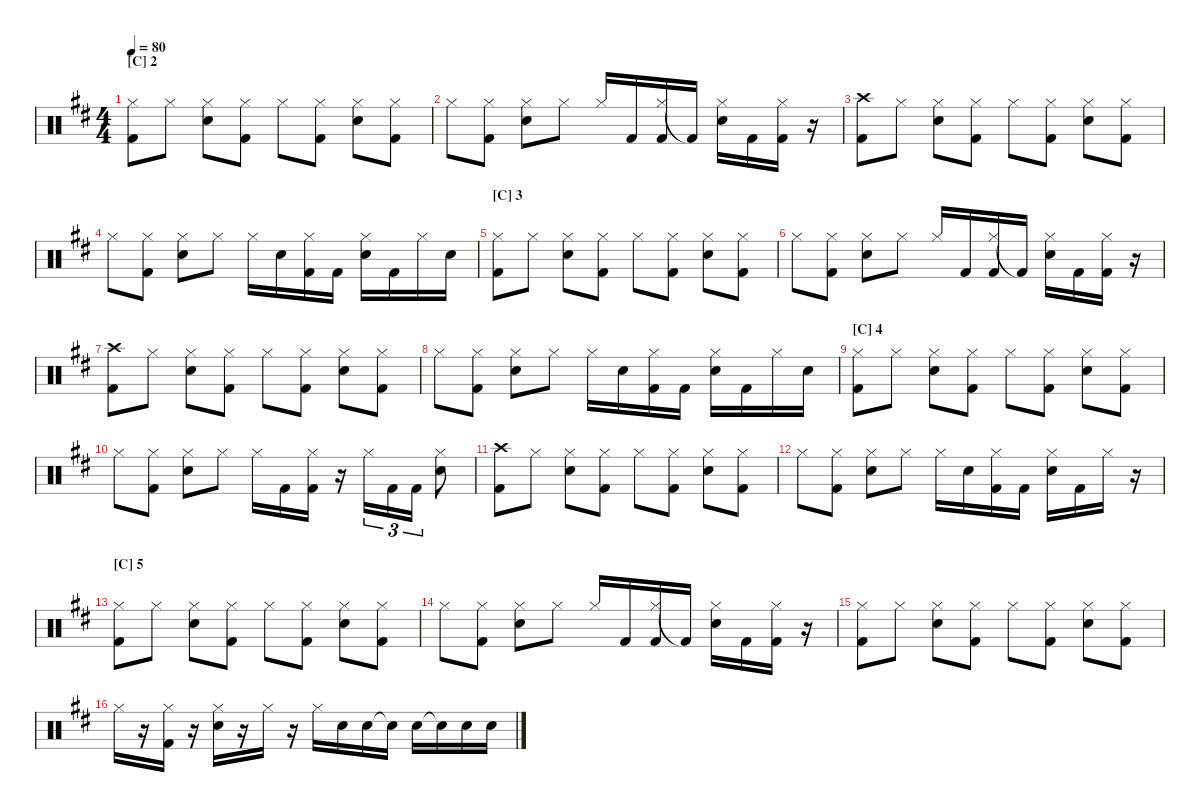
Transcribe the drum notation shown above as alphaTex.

\hideDynamics
\bracketExtendMode nobrackets
\singleTrackTrackNamePolicy hidden
\multiTrackTrackNamePolicy hidden
\otherSystemsTrackNameOrientation horizontal
\track ("Drumkit" "Drums") {instrument percussion}
\staff {score}
\articulation defaults
\ts (4 4)
\section ("C" "2")
\tempo 80
\clef neutral
\ks d
("Hi-Hat (closed)"{acc forcenatural} "Kick (hit) 2"{acc forcenatural}).8{dy f beam Down} "Hi-Hat (closed)"{acc forcenatural}.8{beam Down} ("Hi-Hat (closed)"{acc forcenatural} "Snare (hit) 2"{acc forcenatural}).8{beam Down} ("Hi-Hat (closed)"{acc forcenatural} "Kick (hit) 2"{acc forcenatural}).8{beam Down} "Hi-Hat (closed)"{acc forcenatural}.8{beam Down} ("Hi-Hat (closed)"{acc forcenatural} "Kick (hit) 2"{acc forcenatural}).8{beam Down} ("Hi-Hat (closed)"{acc forcenatural} "Snare (hit) 2"{acc forcenatural}).8{beam Down} ("Hi-Hat (closed)"{acc forcenatural} "Kick (hit) 2"{acc forcenatural}).8{beam Down} |
"Hi-Hat (closed)"{acc forcenatural}.8{beam Down} ("Hi-Hat (closed)"{acc forcenatural} "Kick (hit) 2"{acc forcenatural}).8{beam Down} ("Hi-Hat (closed)"{acc forcenatural} "Snare (hit) 2"{acc forcenatural}).8{beam Down} "Hi-Hat (closed)"{acc forcenatural}.8{beam Down} "Hi-Hat (closed)"{acc forcenatural}.16{beam Up} "Kick (hit) 2"{acc forcenatural}.16{beam Up} ("Hi-Hat (closed)"{acc forcenatural} "Kick (hit) 2"{acc forcenatural}).16{beam Up} "Kick (hit) 2"{t acc forcenatural}.16{beam Up} ("Hi-Hat (closed)"{acc forcenatural} "Snare (hit) 2"{acc forcenatural}).16{beam Down} "Kick (hit) 2"{acc forcenatural}.16{beam Down} ("Hi-Hat (closed)"{acc forcenatural} "Kick (hit) 2"{acc forcenatural}).16{beam Down} r.16{beam Down} |
("Crash high (hit)"{acc forcenatural} "Kick (hit) 2"{acc forcenatural}).8{beam Down} "Hi-Hat (closed)"{acc forcenatural}.8{beam Down} ("Hi-Hat (closed)"{acc forcenatural} "Snare (hit) 2"{acc forcenatural}).8{beam Down} ("Hi-Hat (closed)"{acc forcenatural} "Kick (hit) 2"{acc forcenatural}).8{beam Down} "Hi-Hat (closed)"{acc forcenatural}.8{beam Down} ("Hi-Hat (closed)"{acc forcenatural} "Kick (hit) 2"{acc forcenatural}).8{beam Down} ("Hi-Hat (closed)"{acc forcenatural} "Snare (hit) 2"{acc forcenatural}).8{beam Down} ("Hi-Hat (closed)"{acc forcenatural} "Kick (hit) 2"{acc forcenatural}).8{beam Down} |
"Hi-Hat (closed)"{acc forcenatural}.8{beam Down} ("Hi-Hat (closed)"{acc forcenatural} "Kick (hit) 2"{acc forcenatural}).8{beam Down} ("Hi-Hat (closed)"{acc forcenatural} "Snare (hit) 2"{acc forcenatural}).8{beam Down} "Hi-Hat (closed)"{acc forcenatural}.8{beam Down} "Hi-Hat (closed)"{acc forcenatural}.16{beam Down} "Snare (hit) 2"{acc forcenatural}.16{beam Down} ("Hi-Hat (closed)"{acc forcenatural} "Kick (hit) 2"{acc forcenatural}).16{beam Down} "Kick (hit) 2"{acc forcenatural}.16{beam Down} ("Hi-Hat (closed)"{acc forcenatural} "Snare (hit) 2"{acc forcenatural}).16{beam Down} "Kick (hit) 2"{acc forcenatural}.16{beam Down} "Hi-Hat (closed)"{acc forcenatural}.16{beam Down} "Snare (hit) 2"{acc forcenatural}.16{beam Down} |
\section ("C" "3")
("Hi-Hat (closed)"{acc forcenatural} "Kick (hit) 2"{acc forcenatural}).8{beam Down} "Hi-Hat (closed)"{acc forcenatural}.8{beam Down} ("Hi-Hat (closed)"{acc forcenatural} "Snare (hit) 2"{acc forcenatural}).8{beam Down} ("Hi-Hat (closed)"{acc forcenatural} "Kick (hit) 2"{acc forcenatural}).8{beam Down} "Hi-Hat (closed)"{acc forcenatural}.8{beam Down} ("Hi-Hat (closed)"{acc forcenatural} "Kick (hit) 2"{acc forcenatural}).8{beam Down} ("Hi-Hat (closed)"{acc forcenatural} "Snare (hit) 2"{acc forcenatural}).8{beam Down} ("Hi-Hat (closed)"{acc forcenatural} "Kick (hit) 2"{acc forcenatural}).8{beam Down} |
"Hi-Hat (closed)"{acc forcenatural}.8{beam Down} ("Hi-Hat (closed)"{acc forcenatural} "Kick (hit) 2"{acc forcenatural}).8{beam Down} ("Hi-Hat (closed)"{acc forcenatural} "Snare (hit) 2"{acc forcenatural}).8{beam Down} "Hi-Hat (closed)"{acc forcenatural}.8{beam Down} "Hi-Hat (closed)"{acc forcenatural}.16{beam Up} "Kick (hit) 2"{acc forcenatural}.16{beam Up} ("Hi-Hat (closed)"{acc forcenatural} "Kick (hit) 2"{acc forcenatural}).16{beam Up} "Kick (hit) 2"{t acc forcenatural}.16{beam Up} ("Hi-Hat (closed)"{acc forcenatural} "Snare (hit) 2"{acc forcenatural}).16{beam Down} "Kick (hit) 2"{acc forcenatural}.16{beam Down} ("Hi-Hat (closed)"{acc forcenatural} "Kick (hit) 2"{acc forcenatural}).16{beam Down} r.16{beam Down} |
("Crash high (hit)"{acc forcenatural} "Kick (hit) 2"{acc forcenatural}).8{beam Down} "Hi-Hat (closed)"{acc forcenatural}.8{beam Down} ("Hi-Hat (closed)"{acc forcenatural} "Snare (hit) 2"{acc forcenatural}).8{beam Down} ("Hi-Hat (closed)"{acc forcenatural} "Kick (hit) 2"{acc forcenatural}).8{beam Down} "Hi-Hat (closed)"{acc forcenatural}.8{beam Down} ("Hi-Hat (closed)"{acc forcenatural} "Kick (hit) 2"{acc forcenatural}).8{beam Down} ("Hi-Hat (closed)"{acc forcenatural} "Snare (hit) 2"{acc forcenatural}).8{beam Down} ("Hi-Hat (closed)"{acc forcenatural} "Kick (hit) 2"{acc forcenatural}).8{beam Down} |
"Hi-Hat (closed)"{acc forcenatural}.8{beam Down} ("Hi-Hat (closed)"{acc forcenatural} "Kick (hit) 2"{acc forcenatural}).8{beam Down} ("Hi-Hat (closed)"{acc forcenatural} "Snare (hit) 2"{acc forcenatural}).8{beam Down} "Hi-Hat (closed)"{acc forcenatural}.8{beam Down} "Hi-Hat (closed)"{acc forcenatural}.16{beam Down} "Snare (hit) 2"{acc forcenatural}.16{beam Down} ("Hi-Hat (closed)"{acc forcenatural} "Kick (hit) 2"{acc forcenatural}).16{beam Down} "Kick (hit) 2"{acc forcenatural}.16{beam Down} ("Hi-Hat (closed)"{acc forcenatural} "Snare (hit) 2"{acc forcenatural}).16{beam Down} "Kick (hit) 2"{acc forcenatural}.16{beam Down} "Hi-Hat (closed)"{acc forcenatural}.16{beam Down} "Snare (hit) 2"{acc forcenatural}.16{beam Down} |
\section ("C" "4")
("Hi-Hat (closed)"{acc forcenatural} "Kick (hit) 2"{acc forcenatural}).8{beam Down} "Hi-Hat (closed)"{acc forcenatural}.8{beam Down} ("Hi-Hat (closed)"{acc forcenatural} "Snare (hit) 2"{acc forcenatural}).8{beam Down} ("Hi-Hat (closed)"{acc forcenatural} "Kick (hit) 2"{acc forcenatural}).8{beam Down} "Hi-Hat (closed)"{acc forcenatural}.8{beam Down} ("Hi-Hat (closed)"{acc forcenatural} "Kick (hit) 2"{acc forcenatural}).8{beam Down} ("Hi-Hat (closed)"{acc forcenatural} "Snare (hit) 2"{acc forcenatural}).8{beam Down} ("Hi-Hat (closed)"{acc forcenatural} "Kick (hit) 2"{acc forcenatural}).8{beam Down} |
"Hi-Hat (closed)"{acc forcenatural}.8{beam Down} ("Hi-Hat (closed)"{acc forcenatural} "Kick (hit) 2"{acc forcenatural}).8{beam Down} ("Hi-Hat (closed)"{acc forcenatural} "Snare (hit) 2"{acc forcenatural}).8{beam Down} "Hi-Hat (closed)"{acc forcenatural}.8{beam Down} "Hi-Hat (closed)"{acc forcenatural}.16{beam Down} "Kick (hit) 2"{acc forcenatural}.16{beam Down} ("Hi-Hat (closed)"{acc forcenatural} "Kick (hit) 2"{acc forcenatural}).16{beam Down} r.16{beam Down} "Hi-Hat (closed)"{acc forcenatural}.16{tu (3 2) beam Down} "Kick (hit) 2"{acc forcenatural}.16{tu (3 2) beam Down} "Kick (hit) 2"{acc forcenatural}.16{tu (3 2) beam Down} ("Hi-Hat (closed)"{acc forcenatural} "Snare (hit) 2"{acc forcenatural}).8{beam Down} |
("Crash high (hit)"{acc forcenatural} "Kick (hit) 2"{acc forcenatural}).8{beam Down} "Hi-Hat (closed)"{acc forcenatural}.8{beam Down} ("Hi-Hat (closed)"{acc forcenatural} "Snare (hit) 2"{acc forcenatural}).8{beam Down} ("Hi-Hat (closed)"{acc forcenatural} "Kick (hit) 2"{acc forcenatural}).8{beam Down} "Hi-Hat (closed)"{acc forcenatural}.8{beam Down} ("Hi-Hat (closed)"{acc forcenatural} "Kick (hit) 2"{acc forcenatural}).8{beam Down} ("Hi-Hat (closed)"{acc forcenatural} "Snare (hit) 2"{acc forcenatural}).8{beam Down} ("Hi-Hat (closed)"{acc forcenatural} "Kick (hit) 2"{acc forcenatural}).8{beam Down} |
"Hi-Hat (closed)"{acc forcenatural}.8{beam Down} ("Hi-Hat (closed)"{acc forcenatural} "Kick (hit) 2"{acc forcenatural}).8{beam Down} ("Hi-Hat (closed)"{acc forcenatural} "Snare (hit) 2"{acc forcenatural}).8{beam Down} "Hi-Hat (closed)"{acc forcenatural}.8{beam Down} "Hi-Hat (closed)"{acc forcenatural}.16{beam Down} "Snare (hit) 2"{acc forcenatural}.16{beam Down} ("Hi-Hat (closed)"{acc forcenatural} "Kick (hit) 2"{acc forcenatural}).16{beam Down} "Kick (hit) 2"{acc forcenatural}.16{beam Down} ("Hi-Hat (closed)"{acc forcenatural} "Snare (hit) 2"{acc forcenatural}).16{beam Down} "Kick (hit) 2"{acc forcenatural}.16{beam Down} "Hi-Hat (closed)"{acc forcenatural}.16{beam Down} r.16{beam Down} |
\section ("C" "5")
("Hi-Hat (closed)"{acc forcenatural} "Kick (hit) 2"{acc forcenatural}).8{beam Down} "Hi-Hat (closed)"{acc forcenatural}.8{beam Down} ("Hi-Hat (closed)"{acc forcenatural} "Snare (hit) 2"{acc forcenatural}).8{beam Down} ("Hi-Hat (closed)"{acc forcenatural} "Kick (hit) 2"{acc forcenatural}).8{beam Down} "Hi-Hat (closed)"{acc forcenatural}.8{beam Down} ("Hi-Hat (closed)"{acc forcenatural} "Kick (hit) 2"{acc forcenatural}).8{beam Down} ("Hi-Hat (closed)"{acc forcenatural} "Snare (hit) 2"{acc forcenatural}).8{beam Down} ("Hi-Hat (closed)"{acc forcenatural} "Kick (hit) 2"{acc forcenatural}).8{beam Down} |
"Hi-Hat (closed)"{acc forcenatural}.8{beam Down} ("Hi-Hat (closed)"{acc forcenatural} "Kick (hit) 2"{acc forcenatural}).8{beam Down} ("Hi-Hat (closed)"{acc forcenatural} "Snare (hit) 2"{acc forcenatural}).8{beam Down} "Hi-Hat (closed)"{acc forcenatural}.8{beam Down} "Hi-Hat (closed)"{acc forcenatural}.16{beam Up} "Kick (hit) 2"{acc forcenatural}.16{beam Up} ("Hi-Hat (closed)"{acc forcenatural} "Kick (hit) 2"{acc forcenatural}).16{beam Up} "Kick (hit) 2"{t acc forcenatural}.16{beam Up} ("Hi-Hat (closed)"{acc forcenatural} "Snare (hit) 2"{acc forcenatural}).16{beam Down} "Kick (hit) 2"{acc forcenatural}.16{beam Down} ("Hi-Hat (closed)"{acc forcenatural} "Kick (hit) 2"{acc forcenatural}).16{beam Down} r.16{beam Down} |
("Hi-Hat (closed)"{acc forcenatural} "Kick (hit) 2"{acc forcenatural}).8{beam Down} "Hi-Hat (closed)"{acc forcenatural}.8{beam Down} ("Hi-Hat (closed)"{acc forcenatural} "Snare (hit) 2"{acc forcenatural}).8{beam Down} ("Hi-Hat (closed)"{acc forcenatural} "Kick (hit) 2"{acc forcenatural}).8{beam Down} "Hi-Hat (closed)"{acc forcenatural}.8{beam Down} ("Hi-Hat (closed)"{acc forcenatural} "Kick (hit) 2"{acc forcenatural}).8{beam Down} ("Hi-Hat (closed)"{acc forcenatural} "Snare (hit) 2"{acc forcenatural}).8{beam Down} ("Hi-Hat (closed)"{acc forcenatural} "Kick (hit) 2"{acc forcenatural}).8{beam Down} |
"Hi-Hat (closed)"{acc forcenatural}.16{beam Down} r.16{beam Down} ("Hi-Hat (closed)"{acc forcenatural} "Kick (hit) 2"{acc forcenatural}).16{beam Down} r.16{beam Down} ("Hi-Hat (closed)"{acc forcenatural} "Snare (hit) 2"{acc forcenatural}).16{beam Down} r.16{beam Down} "Hi-Hat (closed)"{acc forcenatural}.16{beam Down} r.16{beam Down} "Hi-Hat (closed)"{acc forcenatural}.16{beam Down} "Snare (hit) 2"{acc forcenatural}.16{beam Down} "Snare (hit) 2"{acc forcenatural}.16{beam Down} "Snare (hit) 2"{t acc forcenatural}.16{beam Down} "Snare (hit) 2"{acc forcenatural}.16{beam Down} "Snare (hit) 2"{t acc forcenatural}.16{beam Down} "Snare (hit) 2"{acc forcenatural}.16{beam Down} "Snare (hit) 2"{acc forcenatural}.16{beam Down}
